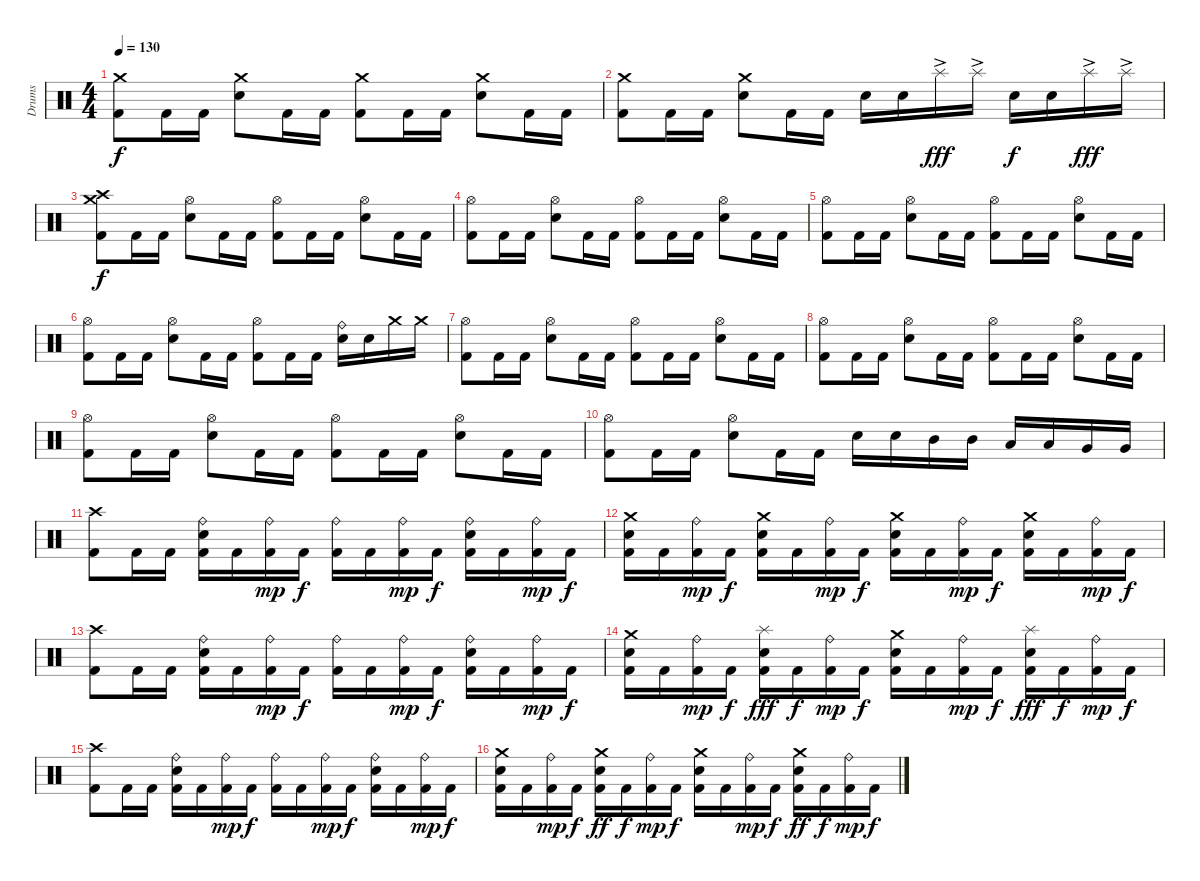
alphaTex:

\track ("Drums" "Drums") {instrument percussion}
\staff {score}
\articulation defaults
\ts (4 4)
\tempo 130
\clef neutral
\ks c
("Crash medium (hit)" "Kick (hit) 2").8{dy f} "Kick (hit) 2".16 "Kick (hit) 2".16 ("Crash medium (hit)" "Snare (hit) 2").8 "Kick (hit) 2".16 "Kick (hit) 2".16 ("Crash medium (hit)" "Kick (hit) 2").8 "Kick (hit) 2".16 "Kick (hit) 2".16 ("Crash medium (hit)" "Snare (hit) 2").8 "Kick (hit) 2".16 "Kick (hit) 2".16 |
("Crash medium (hit)" "Kick (hit) 2").8 "Kick (hit) 2".16 "Kick (hit) 2".16 ("Crash medium (hit)" "Snare (hit) 2").8 "Kick (hit) 2".16 "Kick (hit) 2".16 "Snare (hit) 2".16 "Snare (hit) 2".16 "Splash (hit)"{ac}.16{dy fff} "Splash (hit)"{ac}.16 "Snare (hit) 2".16{dy f} "Snare (hit) 2".16 "Splash (hit)"{ac}.16{dy fff} "Splash (hit)"{ac}.16 |
("Crash high (hit)" "Crash medium (hit)" "Kick (hit) 2").8{dy f} "Kick (hit) 2".16 "Kick (hit) 2".16 ("Hi-Hat (open)" "Snare (hit) 2").8 "Kick (hit) 2".16 "Kick (hit) 2".16 ("Hi-Hat (open)" "Kick (hit) 2").8 "Kick (hit) 2".16 "Kick (hit) 2".16 ("Hi-Hat (open)" "Snare (hit) 2").8 "Kick (hit) 2".16 "Kick (hit) 2".16 |
("Hi-Hat (open)" "Kick (hit) 2").8 "Kick (hit) 2".16 "Kick (hit) 2".16 ("Hi-Hat (open)" "Snare (hit) 2").8 "Kick (hit) 2".16 "Kick (hit) 2".16 ("Hi-Hat (open)" "Kick (hit) 2").8 "Kick (hit) 2".16 "Kick (hit) 2".16 ("Hi-Hat (open)" "Snare (hit) 2").8 "Kick (hit) 2".16 "Kick (hit) 2".16 |
("Hi-Hat (open)" "Kick (hit) 2").8 "Kick (hit) 2".16 "Kick (hit) 2".16 ("Hi-Hat (open)" "Snare (hit) 2").8 "Kick (hit) 2".16 "Kick (hit) 2".16 ("Hi-Hat (open)" "Kick (hit) 2").8 "Kick (hit) 2".16 "Kick (hit) 2".16 ("Hi-Hat (open)" "Snare (hit) 2").8 "Kick (hit) 2".16 "Kick (hit) 2".16 |
("Hi-Hat (open)" "Kick (hit) 2").8 "Kick (hit) 2".16 "Kick (hit) 2".16 ("Hi-Hat (open)" "Snare (hit) 2").8 "Kick (hit) 2".16 "Kick (hit) 2".16 ("Hi-Hat (open)" "Kick (hit) 2").8 "Kick (hit) 2".16 "Kick (hit) 2".16 ("Ride (bell)" "Snare (hit) 2").16 "Snare (hit) 2".16 "Crash medium (hit)".16 "Crash medium (hit)".16 |
("Hi-Hat (open)" "Kick (hit) 2").8 "Kick (hit) 2".16 "Kick (hit) 2".16 ("Hi-Hat (open)" "Snare (hit) 2").8 "Kick (hit) 2".16 "Kick (hit) 2".16 ("Hi-Hat (open)" "Kick (hit) 2").8 "Kick (hit) 2".16 "Kick (hit) 2".16 ("Hi-Hat (open)" "Snare (hit) 2").8 "Kick (hit) 2".16 "Kick (hit) 2".16 |
("Hi-Hat (open)" "Kick (hit) 2").8 "Kick (hit) 2".16 "Kick (hit) 2".16 ("Hi-Hat (open)" "Snare (hit) 2").8 "Kick (hit) 2".16 "Kick (hit) 2".16 ("Hi-Hat (open)" "Kick (hit) 2").8 "Kick (hit) 2".16 "Kick (hit) 2".16 ("Hi-Hat (open)" "Snare (hit) 2").8 "Kick (hit) 2".16 "Kick (hit) 2".16 |
("Hi-Hat (open)" "Kick (hit) 2").8 "Kick (hit) 2".16 "Kick (hit) 2".16 ("Hi-Hat (open)" "Snare (hit) 2").8 "Kick (hit) 2".16 "Kick (hit) 2".16 ("Hi-Hat (open)" "Kick (hit) 2").8 "Kick (hit) 2".16 "Kick (hit) 2".16 ("Hi-Hat (open)" "Snare (hit) 2").8 "Kick (hit) 2".16 "Kick (hit) 2".16 |
("Hi-Hat (open)" "Kick (hit) 2").8 "Kick (hit) 2".16 "Kick (hit) 2".16 ("Hi-Hat (open)" "Snare (hit) 2").8 "Kick (hit) 2".16 "Kick (hit) 2".16 "Snare (hit) 2".16 "Snare (hit) 2".16 "Mid Tom (hit)".16 "Mid Tom (hit)".16 "Low Tom (hit)".16 "Low Tom (hit)".16 "Very Low Tom (hit)".16 "Very Low Tom (hit)".16 |
("Crash high (hit)" "Kick (hit) 2").8 "Kick (hit) 2".16 "Kick (hit) 2".16 ("Ride (bell)" "Snare (hit) 2" "Kick (hit) 2").16 "Kick (hit) 2".16 ("Ride (bell)" "Kick (hit) 2").16{dy mp} "Kick (hit) 2".16{dy f} ("Ride (bell)" "Kick (hit) 2").16 "Kick (hit) 2".16 ("Ride (bell)" "Kick (hit) 2").16{dy mp} "Kick (hit) 2".16{dy f} ("Ride (bell)" "Snare (hit) 2" "Kick (hit) 2").16 "Kick (hit) 2".16 ("Ride (bell)" "Kick (hit) 2").16{dy mp} "Kick (hit) 2".16{dy f} |
("Crash medium (hit)" "Snare (hit) 2" "Kick (hit) 2").16 "Kick (hit) 2".16 ("Ride (bell)" "Kick (hit) 2").16{dy mp} "Kick (hit) 2".16{dy f} ("Crash medium (hit)" "Snare (hit) 2" "Kick (hit) 2").16 "Kick (hit) 2".16 ("Ride (bell)" "Kick (hit) 2").16{dy mp} "Kick (hit) 2".16{dy f} ("Crash medium (hit)" "Snare (hit) 2" "Kick (hit) 2").16 "Kick (hit) 2".16 ("Ride (bell)" "Kick (hit) 2").16{dy mp} "Kick (hit) 2".16{dy f} ("Crash medium (hit)" "Snare (hit) 2" "Kick (hit) 2").16 "Kick (hit) 2".16 ("Ride (bell)" "Kick (hit) 2").16{dy mp} "Kick (hit) 2".16{dy f} |
("Crash high (hit)" "Kick (hit) 2").8 "Kick (hit) 2".16 "Kick (hit) 2".16 ("Ride (bell)" "Snare (hit) 2" "Kick (hit) 2").16 "Kick (hit) 2".16 ("Ride (bell)" "Kick (hit) 2").16{dy mp} "Kick (hit) 2".16{dy f} ("Ride (bell)" "Kick (hit) 2").16 "Kick (hit) 2".16 ("Ride (bell)" "Kick (hit) 2").16{dy mp} "Kick (hit) 2".16{dy f} ("Ride (bell)" "Snare (hit) 2" "Kick (hit) 2").16 "Kick (hit) 2".16 ("Ride (bell)" "Kick (hit) 2").16{dy mp} "Kick (hit) 2".16{dy f} |
("Crash medium (hit)" "Snare (hit) 2" "Kick (hit) 2").16 "Kick (hit) 2".16 ("Ride (bell)" "Kick (hit) 2").16{dy mp} "Kick (hit) 2".16{dy f} ("Splash (hit)" "Snare (hit) 2" "Kick (hit) 2").16{dy fff} "Kick (hit) 2".16{dy f} ("Ride (bell)" "Kick (hit) 2").16{dy mp} "Kick (hit) 2".16{dy f} ("Crash medium (hit)" "Snare (hit) 2" "Kick (hit) 2").16 "Kick (hit) 2".16 ("Ride (bell)" "Kick (hit) 2").16{dy mp} "Kick (hit) 2".16{dy f} ("Splash (hit)" "Snare (hit) 2" "Kick (hit) 2").16{dy fff} "Kick (hit) 2".16{dy f} ("Ride (bell)" "Kick (hit) 2").16{dy mp} "Kick (hit) 2".16{dy f} |
("Crash high (hit)" "Kick (hit) 2").8 "Kick (hit) 2".16 "Kick (hit) 2".16 ("Ride (bell)" "Snare (hit) 2" "Kick (hit) 2").16 "Kick (hit) 2".16 ("Ride (bell)" "Kick (hit) 2").16{dy mp} "Kick (hit) 2".16{dy f} ("Ride (bell)" "Kick (hit) 2").16 "Kick (hit) 2".16 ("Ride (bell)" "Kick (hit) 2").16{dy mp} "Kick (hit) 2".16{dy f} ("Ride (bell)" "Snare (hit) 2" "Kick (hit) 2").16 "Kick (hit) 2".16 ("Ride (bell)" "Kick (hit) 2").16{dy mp} "Kick (hit) 2".16{dy f} |
("Crash medium (hit)" "Snare (hit) 2" "Kick (hit) 2").16 "Kick (hit) 2".16 ("Ride (bell)" "Kick (hit) 2").16{dy mp} "Kick (hit) 2".16{dy f} ("Crash medium (hit)" "Snare (hit) 2" "Kick (hit) 2").16{dy ff} "Kick (hit) 2".16{dy f} ("Ride (bell)" "Kick (hit) 2").16{dy mp} "Kick (hit) 2".16{dy f} ("Crash medium (hit)" "Snare (hit) 2" "Kick (hit) 2").16 "Kick (hit) 2".16 ("Ride (bell)" "Kick (hit) 2").16{dy mp} "Kick (hit) 2".16{dy f} ("Crash medium (hit)" "Snare (hit) 2" "Kick (hit) 2").16{dy ff} "Kick (hit) 2".16{dy f} ("Ride (bell)" "Kick (hit) 2").16{dy mp} "Kick (hit) 2".16{dy f}
